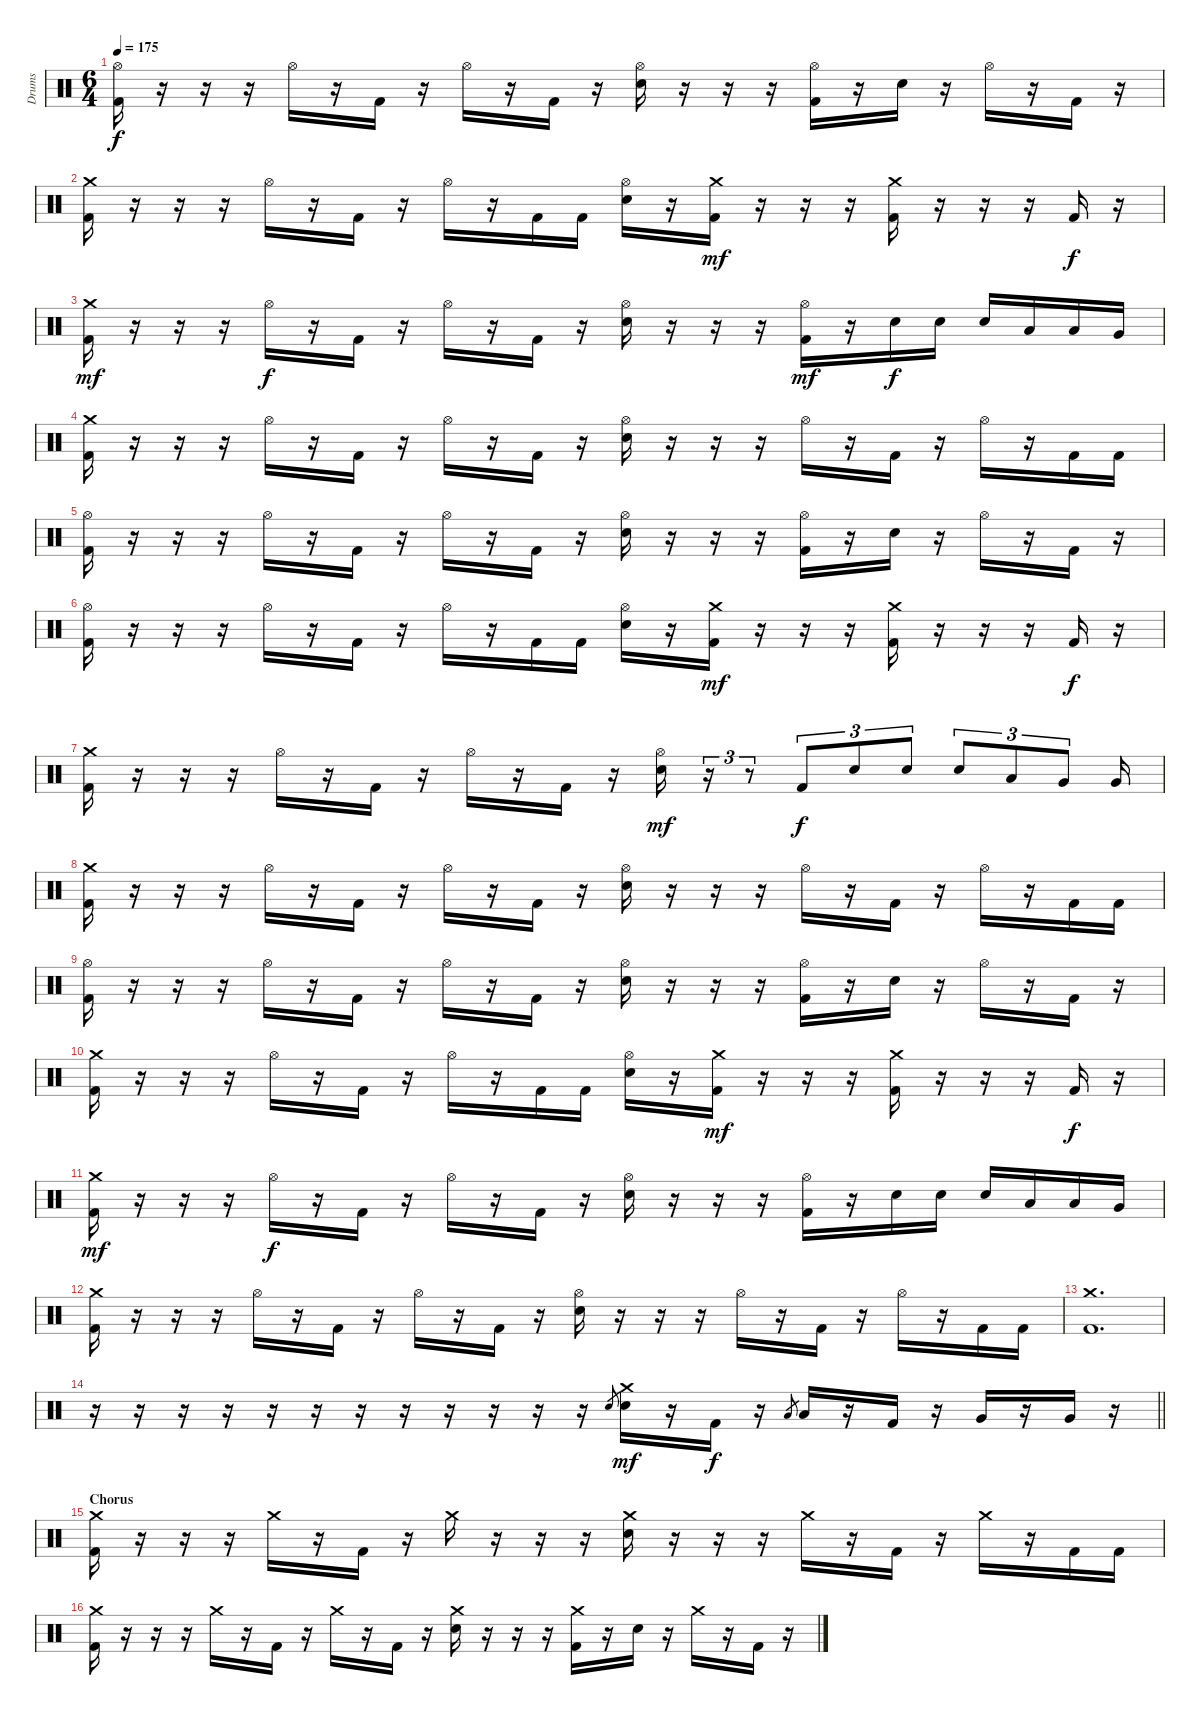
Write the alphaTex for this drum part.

\track ("Drums" "Drums") {instrument percussion}
\staff {score}
\articulation defaults
\ts (6 4)
\tempo 175
\clef neutral
\ks c
("Hi-Hat (open)" "Kick (hit) 2").16{dy f} r.16 r.16 r.16 "Hi-Hat (open)".16 r.16 "Kick (hit) 2".16 r.16 "Hi-Hat (open)".16 r.16 "Kick (hit) 2".16 r.16 ("Hi-Hat (open)" "Electric Snare (hit)").16 r.16 r.16 r.16 ("Hi-Hat (open)" "Kick (hit) 2").16 r.16 "Electric Snare (hit)".16 r.16 "Hi-Hat (open)".16 r.16 "Kick (hit) 2".16 r.16 |
("Crash medium (hit)" "Kick (hit) 2").16 r.16 r.16 r.16 "Hi-Hat (open)".16 r.16 "Kick (hit) 2".16 r.16 "Hi-Hat (open)".16 r.16 "Kick (hit) 2".16 "Kick (hit) 2".16 ("Hi-Hat (open)" "Electric Snare (hit)").16 r.16 ("Crash medium (hit)" "Kick (hit) 2").16{dy mf} r.16 r.16 r.16 ("Crash medium (hit)" "Kick (hit) 2").16 r.16 r.16 r.16 "Kick (hit) 2".16{dy f} r.16 |
("Crash medium (hit)" "Kick (hit) 2").16{dy mf} r.16 r.16 r.16 "Hi-Hat (open)".16{dy f} r.16 "Kick (hit) 2".16 r.16 "Hi-Hat (open)".16 r.16 "Kick (hit) 2".16 r.16 ("Hi-Hat (open)" "Electric Snare (hit)").16 r.16 r.16 r.16 ("Hi-Hat (open)" "Kick (hit) 2").16{dy mf} r.16 "Electric Snare (hit)".16{dy f} "Electric Snare (hit)".16 "Electric Snare (hit)".16 "Low Tom (hit)".16 "Low Tom (hit)".16 "Very Low Tom (hit)".16 |
("Crash medium (hit)" "Kick (hit) 2").16 r.16 r.16 r.16 "Hi-Hat (open)".16 r.16 "Kick (hit) 2".16 r.16 "Hi-Hat (open)".16 r.16 "Kick (hit) 2".16 r.16 ("Hi-Hat (open)" "Electric Snare (hit)").16 r.16 r.16 r.16 "Hi-Hat (open)".16 r.16 "Kick (hit) 2".16 r.16 "Hi-Hat (open)".16 r.16 "Kick (hit) 2".16 "Kick (hit) 2".16 |
("Hi-Hat (open)" "Kick (hit) 2").16 r.16 r.16 r.16 "Hi-Hat (open)".16 r.16 "Kick (hit) 2".16 r.16 "Hi-Hat (open)".16 r.16 "Kick (hit) 2".16 r.16 ("Hi-Hat (open)" "Electric Snare (hit)").16 r.16 r.16 r.16 ("Hi-Hat (open)" "Kick (hit) 2").16 r.16 "Electric Snare (hit)".16 r.16 "Hi-Hat (open)".16 r.16 "Kick (hit) 2".16 r.16 |
("Hi-Hat (open)" "Kick (hit) 2").16 r.16 r.16 r.16 "Hi-Hat (open)".16 r.16 "Kick (hit) 2".16 r.16 "Hi-Hat (open)".16 r.16 "Kick (hit) 2".16 "Kick (hit) 2".16 ("Hi-Hat (open)" "Electric Snare (hit)").16 r.16 ("Crash medium (hit)" "Kick (hit) 2").16{dy mf} r.16 r.16 r.16 ("Crash medium (hit)" "Kick (hit) 2").16 r.16 r.16 r.16 "Kick (hit) 2".16{dy f} r.16 |
("Crash medium (hit)" "Kick (hit) 2").16 r.16 r.16 r.16 "Hi-Hat (open)".16 r.16 "Kick (hit) 2".16 r.16 "Hi-Hat (open)".16 r.16 "Kick (hit) 2".16 r.16 ("Hi-Hat (open)" "Electric Snare (hit)").16{dy mf} r.16{tu (3 2)} r.8{tu (3 2)} "Kick (hit) 2".8{tu (3 2) dy f} "Electric Snare (hit)".8{tu (3 2)} "Electric Snare (hit)".8{tu (3 2)} "Electric Snare (hit)".8{tu (3 2)} "Low Tom (hit)".8{tu (3 2)} "Very Low Tom (hit)".8{tu (3 2)} "Very Low Tom (hit)".16 |
("Crash medium (hit)" "Kick (hit) 2").16 r.16 r.16 r.16 "Hi-Hat (open)".16 r.16 "Kick (hit) 2".16 r.16 "Hi-Hat (open)".16 r.16 "Kick (hit) 2".16 r.16 ("Hi-Hat (open)" "Electric Snare (hit)").16 r.16 r.16 r.16 "Hi-Hat (open)".16 r.16 "Kick (hit) 2".16 r.16 "Hi-Hat (open)".16 r.16 "Kick (hit) 2".16 "Kick (hit) 2".16 |
("Hi-Hat (open)" "Kick (hit) 2").16 r.16 r.16 r.16 "Hi-Hat (open)".16 r.16 "Kick (hit) 2".16 r.16 "Hi-Hat (open)".16 r.16 "Kick (hit) 2".16 r.16 ("Hi-Hat (open)" "Electric Snare (hit)").16 r.16 r.16 r.16 ("Hi-Hat (open)" "Kick (hit) 2").16 r.16 "Electric Snare (hit)".16 r.16 "Hi-Hat (open)".16 r.16 "Kick (hit) 2".16 r.16 |
("Crash medium (hit)" "Kick (hit) 2").16 r.16 r.16 r.16 "Hi-Hat (open)".16 r.16 "Kick (hit) 2".16 r.16 "Hi-Hat (open)".16 r.16 "Kick (hit) 2".16 "Kick (hit) 2".16 ("Hi-Hat (open)" "Electric Snare (hit)").16 r.16 ("Crash medium (hit)" "Kick (hit) 2").16{dy mf} r.16 r.16 r.16 ("Crash medium (hit)" "Kick (hit) 2").16 r.16 r.16 r.16 "Kick (hit) 2".16{dy f} r.16 |
("Crash medium (hit)" "Kick (hit) 2").16{dy mf} r.16 r.16 r.16 "Hi-Hat (open)".16{dy f} r.16 "Kick (hit) 2".16 r.16 "Hi-Hat (open)".16 r.16 "Kick (hit) 2".16 r.16 ("Hi-Hat (open)" "Electric Snare (hit)").16 r.16 r.16 r.16 ("Hi-Hat (open)" "Kick (hit) 2").16 r.16 "Electric Snare (hit)".16 "Electric Snare (hit)".16 "Electric Snare (hit)".16 "Low Tom (hit)".16 "Low Tom (hit)".16 "Very Low Tom (hit)".16 |
("Crash medium (hit)" "Kick (hit) 2").16 r.16 r.16 r.16 "Hi-Hat (open)".16 r.16 "Kick (hit) 2".16 r.16 "Hi-Hat (open)".16 r.16 "Kick (hit) 2".16 r.16 ("Hi-Hat (open)" "Electric Snare (hit)").16 r.16 r.16 r.16 "Hi-Hat (open)".16 r.16 "Kick (hit) 2".16 r.16 "Hi-Hat (open)".16 r.16 "Kick (hit) 2".16 "Kick (hit) 2".16 |
("Crash medium (hit)" "Kick (hit) 2").1{d} |
\barLineRight lightlight
r.16 r.16 r.16 r.16 r.16 r.16 r.16 r.16 r.16 r.16 r.16 r.16 "Electric Snare (hit)".8{gr} ("Crash medium (hit)" "Electric Snare (hit)").16{dy mf} r.16 "Kick (hit) 2".16{dy f} r.16 "Low Tom (hit)".8{gr} "Low Tom (hit)".16 r.16 "Kick (hit) 2".16 r.16 "Very Low Tom (hit)".16 r.16 "Very Low Tom (hit)".16 r.16 |
\section ("" "Chorus")
("Crash medium (hit)" "Kick (hit) 2").16 r.16 r.16 r.16 "Crash medium (hit)".16 r.16 "Kick (hit) 2".16 r.16 "Crash medium (hit)".16 r.16 r.16 r.16 ("Crash medium (hit)" "Electric Snare (hit)").16 r.16 r.16 r.16 "Crash medium (hit)".16 r.16 "Kick (hit) 2".16 r.16 "Crash medium (hit)".16 r.16 "Kick (hit) 2".16 "Kick (hit) 2".16 |
("Crash medium (hit)" "Kick (hit) 2").16 r.16 r.16 r.16 "Crash medium (hit)".16 r.16 "Kick (hit) 2".16 r.16 "Crash medium (hit)".16 r.16 "Kick (hit) 2".16 r.16 ("Crash medium (hit)" "Electric Snare (hit)").16 r.16 r.16 r.16 ("Crash medium (hit)" "Kick (hit) 2").16 r.16 "Electric Snare (hit)".16 r.16 "Crash medium (hit)".16 r.16 "Kick (hit) 2".16 r.16
